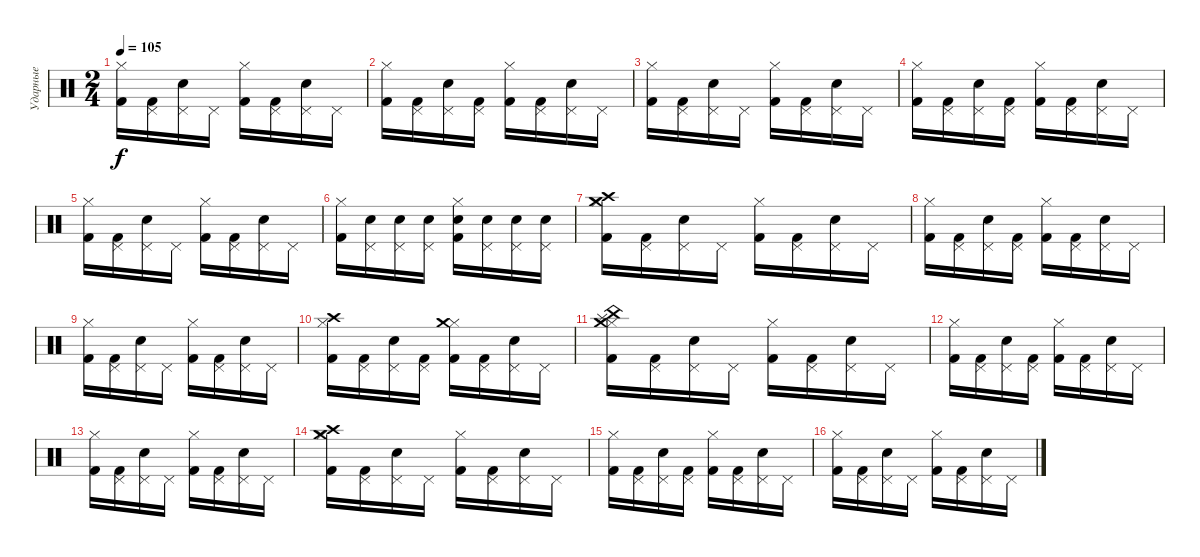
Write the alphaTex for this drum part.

\track ("Ударные" "Ударные") {instrument percussion}
\staff {score}
\articulation defaults
\ts (2 4)
\tempo 105
\clef neutral
\ks c
("Hi-Hat (closed)" "Kick (hit) 2").16{dy f} ("Pedal Hi-Hat (hit)" "Kick (hit) 2").16 ("Pedal Hi-Hat (hit)" "Snare (hit) 2").16 "Pedal Hi-Hat (hit)".16 ("Hi-Hat (closed)" "Kick (hit) 2").16 ("Pedal Hi-Hat (hit)" "Kick (hit) 2").16 ("Pedal Hi-Hat (hit)" "Snare (hit) 2").16 "Pedal Hi-Hat (hit)".16 |
("Hi-Hat (closed)" "Kick (hit) 2").16 ("Pedal Hi-Hat (hit)" "Kick (hit) 2").16 ("Pedal Hi-Hat (hit)" "Snare (hit) 2").16 ("Pedal Hi-Hat (hit)" "Kick (hit) 2").16 ("Hi-Hat (closed)" "Kick (hit) 2").16 ("Pedal Hi-Hat (hit)" "Kick (hit) 2").16 ("Pedal Hi-Hat (hit)" "Snare (hit) 2").16 "Pedal Hi-Hat (hit)".16 |
("Hi-Hat (closed)" "Kick (hit) 2").16 ("Pedal Hi-Hat (hit)" "Kick (hit) 2").16 ("Pedal Hi-Hat (hit)" "Snare (hit) 2").16 "Pedal Hi-Hat (hit)".16 ("Hi-Hat (closed)" "Kick (hit) 2").16 ("Pedal Hi-Hat (hit)" "Kick (hit) 2").16 ("Pedal Hi-Hat (hit)" "Snare (hit) 2").16 "Pedal Hi-Hat (hit)".16 |
("Hi-Hat (closed)" "Kick (hit) 2").16 ("Pedal Hi-Hat (hit)" "Kick (hit) 2").16 ("Pedal Hi-Hat (hit)" "Snare (hit) 2").16 ("Pedal Hi-Hat (hit)" "Kick (hit) 2").16 ("Hi-Hat (closed)" "Kick (hit) 2").16 ("Pedal Hi-Hat (hit)" "Kick (hit) 2").16 ("Pedal Hi-Hat (hit)" "Snare (hit) 2").16 "Pedal Hi-Hat (hit)".16 |
("Hi-Hat (closed)" "Kick (hit) 2").16 ("Pedal Hi-Hat (hit)" "Kick (hit) 2").16 ("Pedal Hi-Hat (hit)" "Snare (hit) 2").16 "Pedal Hi-Hat (hit)".16 ("Hi-Hat (closed)" "Kick (hit) 2").16 ("Pedal Hi-Hat (hit)" "Kick (hit) 2").16 ("Pedal Hi-Hat (hit)" "Snare (hit) 2").16 "Pedal Hi-Hat (hit)".16 |
("Hi-Hat (closed)" "Kick (hit) 2").16 ("Pedal Hi-Hat (hit)" "Snare (hit) 2").16 ("Pedal Hi-Hat (hit)" "Snare (hit) 2").16 ("Pedal Hi-Hat (hit)" "Snare (hit) 2").16 ("Hi-Hat (closed)" "Snare (hit) 2" "Kick (hit) 2").16 ("Pedal Hi-Hat (hit)" "Snare (hit) 2").16 ("Pedal Hi-Hat (hit)" "Snare (hit) 2").16 ("Pedal Hi-Hat (hit)" "Snare (hit) 2").16 |
("Hi-Hat (closed)" "Crash medium (hit)" "Crash high (hit)" "Kick (hit) 2").16 ("Pedal Hi-Hat (hit)" "Kick (hit) 2").16 ("Pedal Hi-Hat (hit)" "Snare (hit) 2").16 "Pedal Hi-Hat (hit)".16 ("Hi-Hat (closed)" "Kick (hit) 2").16 ("Pedal Hi-Hat (hit)" "Kick (hit) 2").16 ("Pedal Hi-Hat (hit)" "Snare (hit) 2").16 "Pedal Hi-Hat (hit)".16 |
("Hi-Hat (closed)" "Kick (hit) 2").16 ("Pedal Hi-Hat (hit)" "Kick (hit) 2").16 ("Pedal Hi-Hat (hit)" "Snare (hit) 2").16 ("Pedal Hi-Hat (hit)" "Kick (hit) 2").16 ("Hi-Hat (closed)" "Kick (hit) 2").16 ("Pedal Hi-Hat (hit)" "Kick (hit) 2").16 ("Pedal Hi-Hat (hit)" "Snare (hit) 2").16 "Pedal Hi-Hat (hit)".16 |
("Hi-Hat (closed)" "Kick (hit) 2").16 ("Pedal Hi-Hat (hit)" "Kick (hit) 2").16 ("Pedal Hi-Hat (hit)" "Snare (hit) 2").16 "Pedal Hi-Hat (hit)".16 ("Hi-Hat (closed)" "Kick (hit) 2").16 ("Pedal Hi-Hat (hit)" "Kick (hit) 2").16 ("Pedal Hi-Hat (hit)" "Snare (hit) 2").16 "Pedal Hi-Hat (hit)".16 |
("Hi-Hat (closed)" "Crash high (hit)" "Kick (hit) 2").16 ("Pedal Hi-Hat (hit)" "Kick (hit) 2").16 ("Pedal Hi-Hat (hit)" "Snare (hit) 2").16 ("Pedal Hi-Hat (hit)" "Kick (hit) 2").16 ("Hi-Hat (closed)" "Crash medium (hit)" "Kick (hit) 2").16 ("Pedal Hi-Hat (hit)" "Kick (hit) 2").16 ("Pedal Hi-Hat (hit)" "Snare (hit) 2").16 "Pedal Hi-Hat (hit)".16 |
("Hi-Hat (closed)" "Splash (hit)" "China (hit)" "Crash medium (hit)" "Kick (hit) 2").16 ("Pedal Hi-Hat (hit)" "Kick (hit) 2").16 ("Pedal Hi-Hat (hit)" "Snare (hit) 2").16 "Pedal Hi-Hat (hit)".16 ("Hi-Hat (closed)" "Kick (hit) 2").16 ("Pedal Hi-Hat (hit)" "Kick (hit) 2").16 ("Pedal Hi-Hat (hit)" "Snare (hit) 2").16 "Pedal Hi-Hat (hit)".16 |
("Hi-Hat (closed)" "Kick (hit) 2").16 ("Pedal Hi-Hat (hit)" "Kick (hit) 2").16 ("Pedal Hi-Hat (hit)" "Snare (hit) 2").16 ("Pedal Hi-Hat (hit)" "Kick (hit) 2").16 ("Hi-Hat (closed)" "Kick (hit) 2").16 ("Pedal Hi-Hat (hit)" "Kick (hit) 2").16 ("Pedal Hi-Hat (hit)" "Snare (hit) 2").16 "Pedal Hi-Hat (hit)".16 |
("Hi-Hat (closed)" "Kick (hit) 2").16 ("Pedal Hi-Hat (hit)" "Kick (hit) 2").16 ("Pedal Hi-Hat (hit)" "Snare (hit) 2").16 "Pedal Hi-Hat (hit)".16 ("Hi-Hat (closed)" "Kick (hit) 2").16 ("Pedal Hi-Hat (hit)" "Kick (hit) 2").16 ("Pedal Hi-Hat (hit)" "Snare (hit) 2").16 "Pedal Hi-Hat (hit)".16 |
("Hi-Hat (closed)" "Crash medium (hit)" "Crash high (hit)" "Kick (hit) 2").16 ("Pedal Hi-Hat (hit)" "Kick (hit) 2").16 ("Pedal Hi-Hat (hit)" "Snare (hit) 2").16 "Pedal Hi-Hat (hit)".16 ("Hi-Hat (closed)" "Kick (hit) 2").16 ("Pedal Hi-Hat (hit)" "Kick (hit) 2").16 ("Pedal Hi-Hat (hit)" "Snare (hit) 2").16 "Pedal Hi-Hat (hit)".16 |
("Hi-Hat (closed)" "Kick (hit) 2").16 ("Pedal Hi-Hat (hit)" "Kick (hit) 2").16 ("Pedal Hi-Hat (hit)" "Snare (hit) 2").16 ("Pedal Hi-Hat (hit)" "Kick (hit) 2").16 ("Hi-Hat (closed)" "Kick (hit) 2").16 ("Pedal Hi-Hat (hit)" "Kick (hit) 2").16 ("Pedal Hi-Hat (hit)" "Snare (hit) 2").16 "Pedal Hi-Hat (hit)".16 |
("Hi-Hat (closed)" "Kick (hit) 2").16 ("Pedal Hi-Hat (hit)" "Kick (hit) 2").16 ("Pedal Hi-Hat (hit)" "Snare (hit) 2").16 "Pedal Hi-Hat (hit)".16 ("Hi-Hat (closed)" "Kick (hit) 2").16 ("Pedal Hi-Hat (hit)" "Kick (hit) 2").16 ("Pedal Hi-Hat (hit)" "Snare (hit) 2").16 "Pedal Hi-Hat (hit)".16
